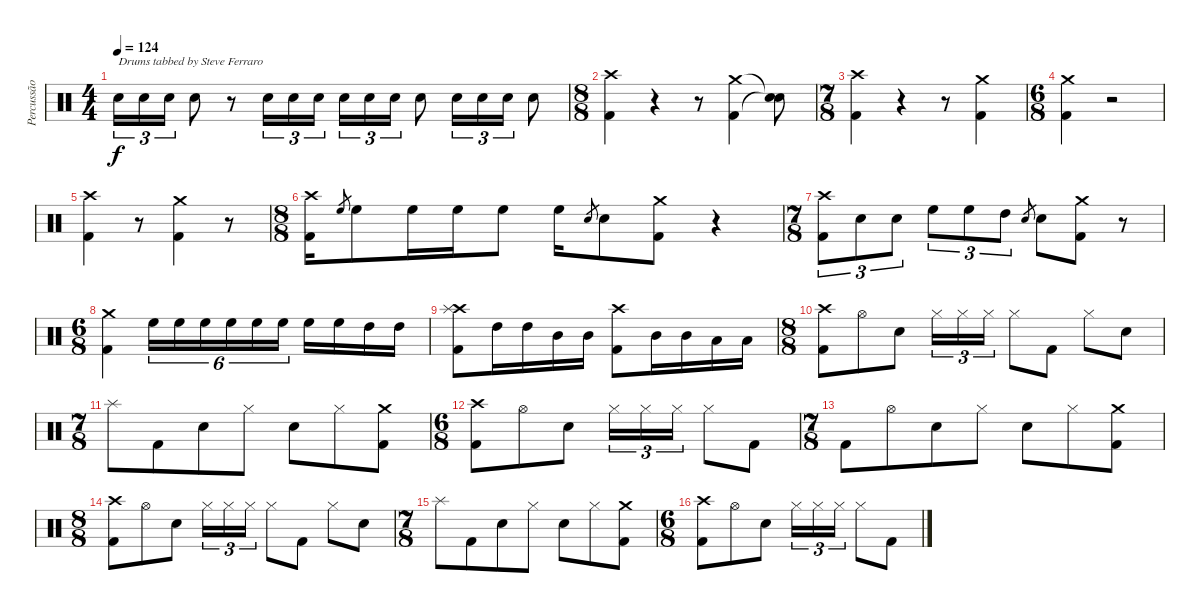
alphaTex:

\track ("Percussão" "Percussão") {instrument percussion}
\staff {score}
\articulation defaults
\ts (4 4)
\tempo 124
\clef neutral
\ks c "Snare (hit) 2".16{tu (3 2) txt "Drums tabbed by Steve Ferraro" dy f} "Snare (hit) 2".16{tu (3 2)} "Snare (hit) 2".16{tu (3 2)} "Snare (hit) 2".8
r.8 "Snare (hit) 2".16{tu (3 2)} "Snare (hit) 2".16{tu (3 2)} "Snare (hit) 2".16{tu (3 2)} "Snare (hit) 2".16{tu (3 2)} "Snare (hit) 2".16{tu (3 2)} "Snare (hit) 2".16{tu (3 2)} "Snare (hit) 2".8 "Snare (hit) 2".16{tu (3 2)} "Snare (hit) 2".16{tu (3 2)} "Snare (hit) 2".16{tu (3 2)} "Snare (hit) 2".8 |
\ts (8 8)
("Crash high (hit)" "Kick (hit) 2").4 r.4 r.8 ("Crash medium (hit)" "Kick (hit) 2").4 ("Snare (hit)"{t} "Snare (hit)"{t}).8 |
\ts (7 8)
("Crash high (hit)" "Kick (hit) 2").4 r.4 r.8 ("Crash medium (hit)" "Kick (hit) 2").4 |
\ts (6 8)
("Crash medium (hit)" "Kick (hit) 2").4 r.2 |
("Crash high (hit)" "Kick (hit) 2").4 r.8 ("Crash medium (hit)" "Kick (hit) 2").4 r.8 |
\ts (8 8)
("Crash high (hit)" "Kick (hit) 2").16 "High Floor Tom (hit)".8{gr} "High Floor Tom (hit)".8 "High Floor Tom (hit)".16 "High Floor Tom (hit)".16 "High Floor Tom (hit)".8 "High Floor Tom (hit)".16 "Snare (hit) 2".8{gr} "Snare (hit) 2".8 ("Crash medium (hit)" "Kick (hit) 2").8 r.4 |
\ts (7 8)
("Crash high (hit)" "Kick (hit) 2").8{tu (3 2)} "Snare (hit) 2".8{tu (3 2)} "Snare (hit) 2".8{tu (3 2)} "High Floor Tom (hit)".8{tu (3 2)} "High Floor Tom (hit)".8{tu (3 2)} "High Tom (hit)".8{tu (3 2)} "Snare (hit) 2".8{gr} "Snare (hit) 2".8 ("Crash medium (hit)" "Kick (hit) 2").8 r.8 |
\ts (6 8)
("Crash medium (hit)" "Kick (hit) 2").4 "High Floor Tom (hit)".16{tu (6 4)} "High Floor Tom (hit)".16{tu (6 4)} "High Floor Tom (hit)".16{tu (6 4)} "High Floor Tom (hit)".16{tu (6 4)} "High Floor Tom (hit)".16{tu (6 4)} "High Floor Tom (hit)".16{tu (6 4)} "High Floor Tom (hit)".16 "High Floor Tom (hit)".16 "High Tom (hit)".16 "High Tom (hit)".16 |
("Crash high (hit)" "Splash (hit)" "Kick (hit) 2").8 "High Tom (hit)".16 "High Tom (hit)".16 "Mid Tom (hit)".16 "Mid Tom (hit)".16 ("Crash high (hit)" "Kick (hit) 2").8 "Mid Tom (hit)".16 "Mid Tom (hit)".16 "Low Tom (hit)".16 "Low Tom (hit)".16 |
\ts (8 8)
("Crash high (hit)" "Kick (hit) 2").8 "Hi-Hat (open)".8 "Snare (hit) 2".8 "Hi-Hat (closed)".16{tu (3 2)} "Hi-Hat (closed)".16{tu (3 2)} "Hi-Hat (closed)".16{tu (3 2)} "Hi-Hat (closed)".8 "Kick (hit) 2".8 "Hi-Hat (closed)".8 "Snare (hit) 2".8 |
\ts (7 8)
"Splash (hit)".8 "Kick (hit) 2".8 "Snare (hit) 2".8 "Hi-Hat (closed)".8 "Snare (hit) 2".8 "Hi-Hat (closed)".8 ("Crash medium (hit)" "Kick (hit) 2").8 |
\ts (6 8)
("Crash high (hit)" "Kick (hit) 2").8 "Hi-Hat (open)".8 "Snare (hit) 2".8 "Hi-Hat (closed)".16{tu (3 2)} "Hi-Hat (closed)".16{tu (3 2)} "Hi-Hat (closed)".16{tu (3 2)} "Hi-Hat (closed)".8 "Kick (hit) 2".8 |
\ts (7 8)
"Kick (hit) 2".8 "Hi-Hat (open)".8 "Snare (hit) 2".8 "Hi-Hat (closed)".8 "Snare (hit) 2".8 "Hi-Hat (closed)".8 ("Crash medium (hit)" "Kick (hit) 2").8 |
\ts (8 8)
("Crash high (hit)" "Kick (hit) 2").8 "Hi-Hat (open)".8 "Snare (hit) 2".8 "Hi-Hat (closed)".16{tu (3 2)} "Hi-Hat (closed)".16{tu (3 2)} "Hi-Hat (closed)".16{tu (3 2)} "Hi-Hat (closed)".8 "Kick (hit) 2".8 "Hi-Hat (closed)".8 "Snare (hit) 2".8 |
\ts (7 8)
"Splash (hit)".8 "Kick (hit) 2".8 "Snare (hit) 2".8 "Hi-Hat (closed)".8 "Snare (hit) 2".8 "Hi-Hat (closed)".8 ("Crash medium (hit)" "Kick (hit) 2").8 |
\ts (6 8)
("Crash high (hit)" "Kick (hit) 2").8 "Hi-Hat (open)".8 "Snare (hit) 2".8 "Hi-Hat (closed)".16{tu (3 2)} "Hi-Hat (closed)".16{tu (3 2)} "Hi-Hat (closed)".16{tu (3 2)} "Hi-Hat (closed)".8 "Kick (hit) 2".8
